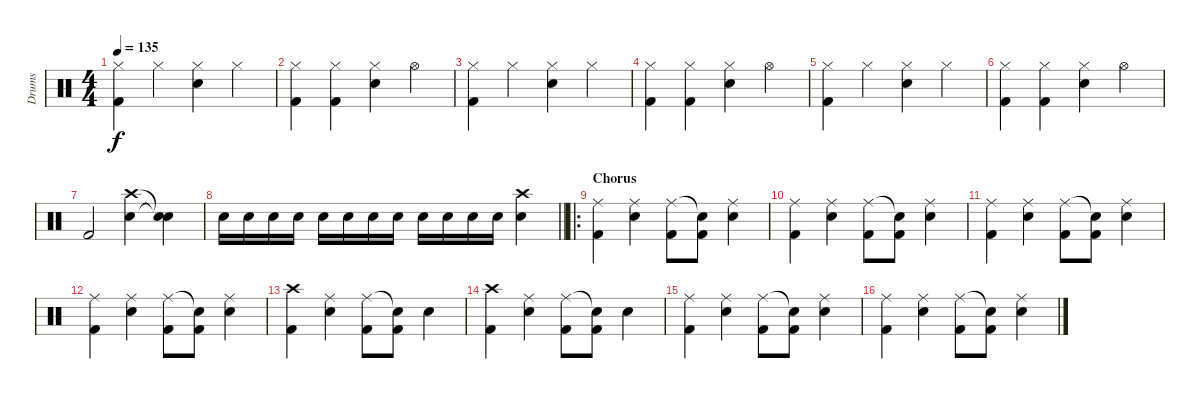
\track ("Drums" "Drums") {instrument percussion}
\staff {score}
\articulation defaults
\ts (4 4)
\tempo 135
\clef neutral
\ks c
("Hi-Hat (closed)" "Kick (hit) 2").4{dy f} "Hi-Hat (closed)".4 ("Hi-Hat (closed)" "Snare (hit) 2").4 "Hi-Hat (closed)".4 |
("Hi-Hat (closed)" "Kick (hit) 2").4 ("Hi-Hat (closed)" "Kick (hit) 2").4 ("Hi-Hat (closed)" "Snare (hit) 2").4 "Hi-Hat (open)".4 |
("Hi-Hat (closed)" "Kick (hit) 2").4 "Hi-Hat (closed)".4 ("Hi-Hat (closed)" "Snare (hit) 2").4 "Hi-Hat (closed)".4 |
("Hi-Hat (closed)" "Kick (hit) 2").4 ("Hi-Hat (closed)" "Kick (hit) 2").4 ("Hi-Hat (closed)" "Snare (hit) 2").4 "Hi-Hat (open)".4 |
("Hi-Hat (closed)" "Kick (hit) 2").4 "Hi-Hat (closed)".4 ("Hi-Hat (closed)" "Snare (hit) 2").4 "Hi-Hat (closed)".4 |
("Hi-Hat (closed)" "Kick (hit) 2").4 ("Hi-Hat (closed)" "Kick (hit) 2").4 ("Hi-Hat (closed)" "Snare (hit) 2").4 "Hi-Hat (open)".4 |
"Kick (hit) 2".2 ("Crash high (hit)" "Snare (hit) 2").4 ("Snare (hit)"{t} "Snare (hit)"{t}).4 |
\barLineRight lightlight "Snare (hit) 2".16 "Snare (hit) 2".16 "Snare (hit) 2".16 "Snare (hit) 2".16 "Snare (hit) 2".16 "Snare (hit) 2".16 "Snare (hit) 2".16 "Snare (hit) 2".16 "Snare (hit) 2".16 "Snare (hit) 2".16 "Snare (hit) 2".16 "Snare (hit) 2".16
("Crash high (hit)" "Snare (hit) 2").4 |
\ro
\section ("" "Chorus")
("Ride (middle)" "Kick (hit) 2").4 ("Ride (middle)" "Snare (hit) 2").4 ("Ride (middle)" "Kick (hit) 2").8 ("Snare (hit)"{t} "Kick (hit) 2").8 ("Ride (middle)" "Snare (hit) 2").4 |
("Ride (middle)" "Kick (hit) 2").4 ("Ride (middle)" "Snare (hit) 2").4 ("Ride (middle)" "Kick (hit) 2").8 ("Snare (hit)"{t} "Kick (hit) 2").8 ("Ride (middle)" "Snare (hit) 2").4 |
("Ride (middle)" "Kick (hit) 2").4 ("Ride (middle)" "Snare (hit) 2").4 ("Ride (middle)" "Kick (hit) 2").8 ("Snare (hit)"{t} "Kick (hit) 2").8 ("Ride (middle)" "Snare (hit) 2").4 |
("Ride (middle)" "Kick (hit) 2").4 ("Ride (middle)" "Snare (hit) 2").4 ("Ride (middle)" "Kick (hit) 2").8 ("Snare (hit)"{t} "Kick (hit) 2").8 ("Ride (middle)" "Snare (hit) 2").4 |
("Crash high (hit)" "Kick (hit) 2").4 ("Ride (middle)" "Snare (hit) 2").4 ("Ride (middle)" "Kick (hit) 2").8 ("Snare (hit)"{t} "Kick (hit) 2").8 "Snare (hit) 2".4 |
("Crash high (hit)" "Kick (hit) 2").4 ("Ride (middle)" "Snare (hit) 2").4 ("Ride (middle)" "Kick (hit) 2").8 ("Snare (hit)"{t} "Kick (hit) 2").8 "Snare (hit) 2".4 |
("Ride (middle)" "Kick (hit) 2").4 ("Ride (middle)" "Snare (hit) 2").4 ("Ride (middle)" "Kick (hit) 2").8 ("Snare (hit)"{t} "Kick (hit) 2").8 ("Ride (middle)" "Snare (hit) 2").4 |
("Ride (middle)" "Kick (hit) 2").4 ("Ride (middle)" "Snare (hit) 2").4 ("Ride (middle)" "Kick (hit) 2").8 ("Snare (hit)"{t} "Kick (hit) 2").8 ("Ride (middle)" "Snare (hit) 2").4
